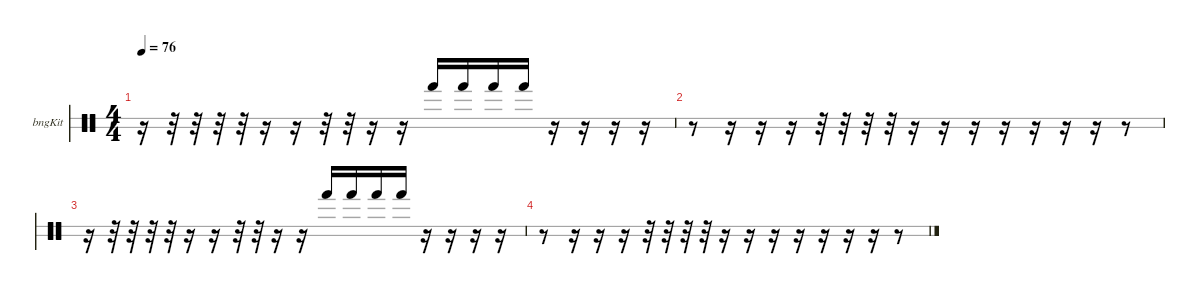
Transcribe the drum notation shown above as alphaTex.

\hideDynamics
\bracketExtendMode nobrackets
\firstSystemTrackNameOrientation horizontal
\otherSystemsTrackNameOrientation horizontal
\track ("Bongos" "bngKit") {instrument percussion}
\staff {score 2}
\articulation defaults
\ts (4 4)
\tempo 76
\clef neutral
\ks c
r.16{dy f beam Down} r.32{beam Down} r.32{beam Down} r.32{beam Down} r.32{beam Down} r.16{beam Down} r.16{beam Down} r.32{beam Down} r.32{beam Down} r.16{beam Down} r.16{beam Down} "Hand (hit)".16{beam Up} "Hand (hit)".16{beam Up} "Hand (hit)".16{beam Up} "Hand (hit)".16{beam Up} r.16{beam Up} r.16{beam Up} r.16{beam Up} r.16{beam Up} |
r.8{beam Down} r.16{beam Down} r.16{beam Down} r.16{beam Down} r.32{beam Down} r.32{beam Down} r.32{beam Down} r.32{beam Down} r.16{beam Down} r.16{beam Down} r.16{beam Down} r.16{beam Down} r.16{beam Down} r.16{beam Down} r.16{beam Down} r.8{beam Down} |
r.16{beam Down} r.32{beam Down} r.32{beam Down} r.32{beam Down} r.32{beam Down} r.16{beam Down} r.16{beam Down} r.32{beam Down} r.32{beam Down} r.16{beam Down} r.16{beam Down} "Hand (hit)".16{beam Up} "Hand (hit)".16{beam Up} "Hand (hit)".16{beam Up} "Hand (hit)".16{beam Up} r.16{beam Up} r.16{beam Up} r.16{beam Up} r.16{beam Up} |
r.8{beam Down} r.16{beam Down} r.16{beam Down} r.16{beam Down} r.32{beam Down} r.32{beam Down} r.32{beam Down} r.32{beam Down} r.16{beam Down} r.16{beam Down} r.16{beam Down} r.16{beam Down} r.16{beam Down} r.16{beam Down} r.16{beam Down} r.8{beam Down}
